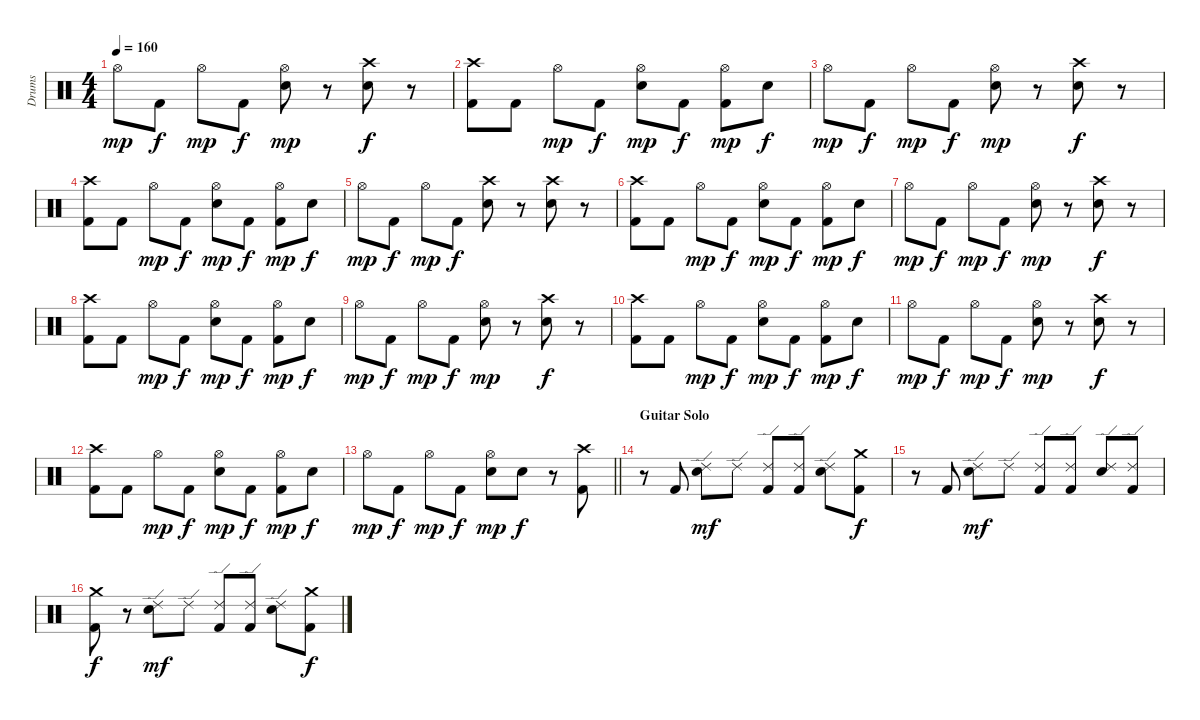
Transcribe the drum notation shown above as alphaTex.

\track ("Drums" "Drums") {instrument percussion}
\staff {score}
\articulation defaults
\ts (4 4)
\tempo 160
\clef neutral
\ks c "Hi-Hat (open)".8{dy mp} "Kick (hit) 2".8{dy f} "Hi-Hat (open)".8{dy mp} "Kick (hit) 2".8{dy f}
("Hi-Hat (open)" "Electric Snare (hit)").8{dy mp} r.8 ("Crash high (hit)" "Electric Snare (hit)").8{dy f} r.8 |
("Crash high (hit)" "Kick (hit) 2").8 "Kick (hit) 2".8 "Hi-Hat (open)".8{dy mp} "Kick (hit) 2".8{dy f} ("Hi-Hat (open)" "Electric Snare (hit)").8{dy mp} "Kick (hit) 2".8{dy f} ("Hi-Hat (open)" "Kick (hit) 2").8{dy mp} "Electric Snare (hit)".8{dy f} |
"Hi-Hat (open)".8{dy mp} "Kick (hit) 2".8{dy f} "Hi-Hat (open)".8{dy mp} "Kick (hit) 2".8{dy f} ("Hi-Hat (open)" "Electric Snare (hit)").8{dy mp} r.8 ("Crash high (hit)" "Electric Snare (hit)").8{dy f} r.8 |
("Crash high (hit)" "Kick (hit) 2").8 "Kick (hit) 2".8 "Hi-Hat (open)".8{dy mp} "Kick (hit) 2".8{dy f} ("Hi-Hat (open)" "Electric Snare (hit)").8{dy mp} "Kick (hit) 2".8{dy f} ("Hi-Hat (open)" "Kick (hit) 2").8{dy mp} "Electric Snare (hit)".8{dy f} |
"Hi-Hat (open)".8{dy mp} "Kick (hit) 2".8{dy f} "Hi-Hat (open)".8{dy mp} "Kick (hit) 2".8{dy f} ("Crash high (hit)" "Electric Snare (hit)").8 r.8 ("Crash high (hit)" "Electric Snare (hit)").8 r.8 |
("Crash high (hit)" "Kick (hit) 2").8 "Kick (hit) 2".8 "Hi-Hat (open)".8{dy mp} "Kick (hit) 2".8{dy f} ("Hi-Hat (open)" "Electric Snare (hit)").8{dy mp} "Kick (hit) 2".8{dy f} ("Hi-Hat (open)" "Kick (hit) 2").8{dy mp} "Electric Snare (hit)".8{dy f} |
"Hi-Hat (open)".8{dy mp} "Kick (hit) 2".8{dy f} "Hi-Hat (open)".8{dy mp} "Kick (hit) 2".8{dy f} ("Hi-Hat (open)" "Electric Snare (hit)").8{dy mp} r.8 ("Crash high (hit)" "Electric Snare (hit)").8{dy f} r.8 |
("Crash high (hit)" "Kick (hit) 2").8 "Kick (hit) 2".8 "Hi-Hat (open)".8{dy mp} "Kick (hit) 2".8{dy f} ("Hi-Hat (open)" "Electric Snare (hit)").8{dy mp} "Kick (hit) 2".8{dy f} ("Hi-Hat (open)" "Kick (hit) 2").8{dy mp} "Electric Snare (hit)".8{dy f} |
"Hi-Hat (open)".8{dy mp} "Kick (hit) 2".8{dy f} "Hi-Hat (open)".8{dy mp} "Kick (hit) 2".8{dy f} ("Hi-Hat (open)" "Electric Snare (hit)").8{dy mp} r.8 ("Crash high (hit)" "Electric Snare (hit)").8{dy f} r.8 |
("Crash high (hit)" "Kick (hit) 2").8 "Kick (hit) 2".8 "Hi-Hat (open)".8{dy mp} "Kick (hit) 2".8{dy f} ("Hi-Hat (open)" "Electric Snare (hit)").8{dy mp} "Kick (hit) 2".8{dy f} ("Hi-Hat (open)" "Kick (hit) 2").8{dy mp} "Electric Snare (hit)".8{dy f} |
"Hi-Hat (open)".8{dy mp} "Kick (hit) 2".8{dy f} "Hi-Hat (open)".8{dy mp} "Kick (hit) 2".8{dy f} ("Hi-Hat (open)" "Electric Snare (hit)").8{dy mp} r.8 ("Crash high (hit)" "Electric Snare (hit)").8{dy f} r.8 |
("Crash high (hit)" "Kick (hit) 2").8 "Kick (hit) 2".8 "Hi-Hat (open)".8{dy mp} "Kick (hit) 2".8{dy f} ("Hi-Hat (open)" "Electric Snare (hit)").8{dy mp} "Kick (hit) 2".8{dy f} ("Hi-Hat (open)" "Kick (hit) 2").8{dy mp} "Electric Snare (hit)".8{dy f} |
\barLineRight lightlight "Hi-Hat (open)".8{dy mp} "Kick (hit) 2".8{dy f} "Hi-Hat (open)".8{dy mp} "Kick (hit) 2".8{dy f}
("Hi-Hat (open)" "Electric Snare (hit)").8{dy mp} "Electric Snare (hit)".8{dy f} r.8 ("Crash high (hit)" "Kick (hit) 2").8 |
\section ("" "Guitar Solo")
r.8 "Kick (hit) 2".8 ("Ride (edge) 2" "Electric Snare (hit)").8{dy mf} "Ride (edge) 2".8 ("Ride (edge) 2" "Kick (hit) 2").8 ("Ride (edge) 2" "Kick (hit) 2").8 ("Ride (edge) 2" "Electric Snare (hit)").8 ("Crash medium (hit)" "Kick (hit) 2").8{dy f} |
r.8 "Kick (hit) 2".8 ("Ride (edge) 2" "Electric Snare (hit)").8{dy mf} "Ride (edge) 2".8 ("Ride (edge) 2" "Kick (hit) 2").8 ("Ride (edge) 2" "Kick (hit) 2").8 ("Ride (edge) 2" "Electric Snare (hit)").8 ("Ride (edge) 2" "Kick (hit) 2").8 |
("Crash medium (hit)" "Kick (hit) 2").8{dy f} r.8 ("Ride (edge) 2" "Electric Snare (hit)").8{dy mf} "Ride (edge) 2".8 ("Ride (edge) 2" "Kick (hit) 2").8 ("Ride (edge) 2" "Kick (hit) 2").8 ("Ride (edge) 2" "Electric Snare (hit)").8 ("Crash medium (hit)" "Kick (hit) 2").8{dy f}
